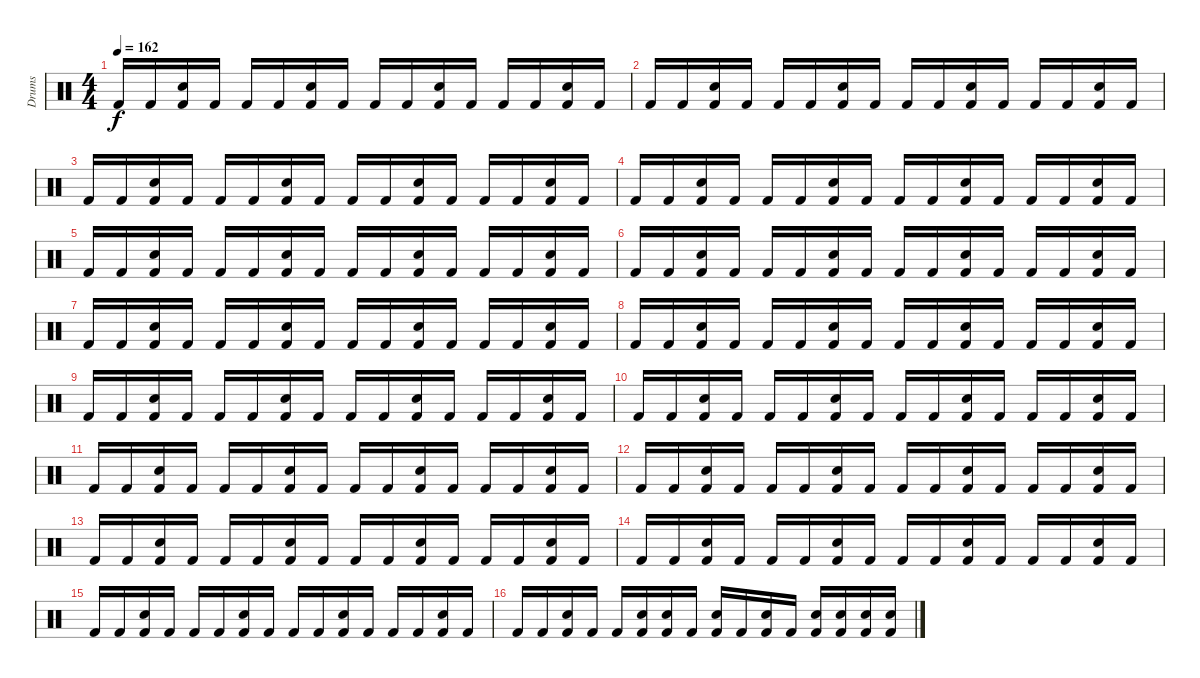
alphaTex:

\track ("Drums" "Drums") {instrument percussion}
\staff {score}
\articulation defaults
\ts (4 4)
\tempo 162
\clef neutral
\ks c "Kick (hit) 2".16{dy f} "Kick (hit) 2".16
("Electric Snare (hit)" "Kick (hit) 2").16 "Kick (hit) 2".16 "Kick (hit) 2".16 "Kick (hit) 2".16 ("Electric Snare (hit)" "Kick (hit) 2").16 "Kick (hit) 2".16 "Kick (hit) 2".16 "Kick (hit) 2".16 ("Electric Snare (hit)" "Kick (hit) 2").16 "Kick (hit) 2".16 "Kick (hit) 2".16 "Kick (hit) 2".16 ("Electric Snare (hit)" "Kick (hit) 2").16 "Kick (hit) 2".16 |
"Kick (hit) 2".16 "Kick (hit) 2".16 ("Electric Snare (hit)" "Kick (hit) 2").16 "Kick (hit) 2".16 "Kick (hit) 2".16 "Kick (hit) 2".16 ("Electric Snare (hit)" "Kick (hit) 2").16 "Kick (hit) 2".16 "Kick (hit) 2".16 "Kick (hit) 2".16 ("Electric Snare (hit)" "Kick (hit) 2").16 "Kick (hit) 2".16 "Kick (hit) 2".16 "Kick (hit) 2".16 ("Electric Snare (hit)" "Kick (hit) 2").16 "Kick (hit) 2".16 |
"Kick (hit) 2".16 "Kick (hit) 2".16 ("Electric Snare (hit)" "Kick (hit) 2").16 "Kick (hit) 2".16 "Kick (hit) 2".16 "Kick (hit) 2".16 ("Electric Snare (hit)" "Kick (hit) 2").16 "Kick (hit) 2".16 "Kick (hit) 2".16 "Kick (hit) 2".16 ("Electric Snare (hit)" "Kick (hit) 2").16 "Kick (hit) 2".16 "Kick (hit) 2".16 "Kick (hit) 2".16 ("Electric Snare (hit)" "Kick (hit) 2").16 "Kick (hit) 2".16 |
"Kick (hit) 2".16 "Kick (hit) 2".16 ("Electric Snare (hit)" "Kick (hit) 2").16 "Kick (hit) 2".16 "Kick (hit) 2".16 "Kick (hit) 2".16 ("Electric Snare (hit)" "Kick (hit) 2").16 "Kick (hit) 2".16 "Kick (hit) 2".16 "Kick (hit) 2".16 ("Electric Snare (hit)" "Kick (hit) 2").16 "Kick (hit) 2".16 "Kick (hit) 2".16 "Kick (hit) 2".16 ("Electric Snare (hit)" "Kick (hit) 2").16 "Kick (hit) 2".16 |
"Kick (hit) 2".16 "Kick (hit) 2".16 ("Electric Snare (hit)" "Kick (hit) 2").16 "Kick (hit) 2".16 "Kick (hit) 2".16 "Kick (hit) 2".16 ("Electric Snare (hit)" "Kick (hit) 2").16 "Kick (hit) 2".16 "Kick (hit) 2".16 "Kick (hit) 2".16 ("Electric Snare (hit)" "Kick (hit) 2").16 "Kick (hit) 2".16 "Kick (hit) 2".16 "Kick (hit) 2".16 ("Electric Snare (hit)" "Kick (hit) 2").16 "Kick (hit) 2".16 |
"Kick (hit) 2".16 "Kick (hit) 2".16 ("Electric Snare (hit)" "Kick (hit) 2").16 "Kick (hit) 2".16 "Kick (hit) 2".16 "Kick (hit) 2".16 ("Electric Snare (hit)" "Kick (hit) 2").16 "Kick (hit) 2".16 "Kick (hit) 2".16 "Kick (hit) 2".16 ("Electric Snare (hit)" "Kick (hit) 2").16 "Kick (hit) 2".16 "Kick (hit) 2".16 "Kick (hit) 2".16 ("Electric Snare (hit)" "Kick (hit) 2").16 "Kick (hit) 2".16 |
"Kick (hit) 2".16 "Kick (hit) 2".16 ("Electric Snare (hit)" "Kick (hit) 2").16 "Kick (hit) 2".16 "Kick (hit) 2".16 "Kick (hit) 2".16 ("Electric Snare (hit)" "Kick (hit) 2").16 "Kick (hit) 2".16 "Kick (hit) 2".16 "Kick (hit) 2".16 ("Electric Snare (hit)" "Kick (hit) 2").16 "Kick (hit) 2".16 "Kick (hit) 2".16 "Kick (hit) 2".16 ("Electric Snare (hit)" "Kick (hit) 2").16 "Kick (hit) 2".16 |
"Kick (hit) 2".16 "Kick (hit) 2".16 ("Electric Snare (hit)" "Kick (hit) 2").16 "Kick (hit) 2".16 "Kick (hit) 2".16 "Kick (hit) 2".16 ("Electric Snare (hit)" "Kick (hit) 2").16 "Kick (hit) 2".16 "Kick (hit) 2".16 "Kick (hit) 2".16 ("Electric Snare (hit)" "Kick (hit) 2").16 "Kick (hit) 2".16 "Kick (hit) 2".16 "Kick (hit) 2".16 ("Electric Snare (hit)" "Kick (hit) 2").16 "Kick (hit) 2".16 |
"Kick (hit) 2".16 "Kick (hit) 2".16 ("Electric Snare (hit)" "Kick (hit) 2").16 "Kick (hit) 2".16 "Kick (hit) 2".16 "Kick (hit) 2".16 ("Electric Snare (hit)" "Kick (hit) 2").16 "Kick (hit) 2".16 "Kick (hit) 2".16 "Kick (hit) 2".16 ("Electric Snare (hit)" "Kick (hit) 2").16 "Kick (hit) 2".16 "Kick (hit) 2".16 "Kick (hit) 2".16 ("Electric Snare (hit)" "Kick (hit) 2").16 "Kick (hit) 2".16 |
"Kick (hit) 2".16 "Kick (hit) 2".16 ("Electric Snare (hit)" "Kick (hit) 2").16 "Kick (hit) 2".16 "Kick (hit) 2".16 "Kick (hit) 2".16 ("Electric Snare (hit)" "Kick (hit) 2").16 "Kick (hit) 2".16 "Kick (hit) 2".16 "Kick (hit) 2".16 ("Electric Snare (hit)" "Kick (hit) 2").16 "Kick (hit) 2".16 "Kick (hit) 2".16 "Kick (hit) 2".16 ("Electric Snare (hit)" "Kick (hit) 2").16 "Kick (hit) 2".16 |
"Kick (hit) 2".16 "Kick (hit) 2".16 ("Electric Snare (hit)" "Kick (hit) 2").16 "Kick (hit) 2".16 "Kick (hit) 2".16 "Kick (hit) 2".16 ("Electric Snare (hit)" "Kick (hit) 2").16 "Kick (hit) 2".16 "Kick (hit) 2".16 "Kick (hit) 2".16 ("Electric Snare (hit)" "Kick (hit) 2").16 "Kick (hit) 2".16 "Kick (hit) 2".16 "Kick (hit) 2".16 ("Electric Snare (hit)" "Kick (hit) 2").16 "Kick (hit) 2".16 |
"Kick (hit) 2".16 "Kick (hit) 2".16 ("Electric Snare (hit)" "Kick (hit) 2").16 "Kick (hit) 2".16 "Kick (hit) 2".16 "Kick (hit) 2".16 ("Electric Snare (hit)" "Kick (hit) 2").16 "Kick (hit) 2".16 "Kick (hit) 2".16 "Kick (hit) 2".16 ("Electric Snare (hit)" "Kick (hit) 2").16 "Kick (hit) 2".16 "Kick (hit) 2".16 "Kick (hit) 2".16 ("Electric Snare (hit)" "Kick (hit) 2").16 "Kick (hit) 2".16 |
"Kick (hit) 2".16 "Kick (hit) 2".16 ("Electric Snare (hit)" "Kick (hit) 2").16 "Kick (hit) 2".16 "Kick (hit) 2".16 "Kick (hit) 2".16 ("Electric Snare (hit)" "Kick (hit) 2").16 "Kick (hit) 2".16 "Kick (hit) 2".16 "Kick (hit) 2".16 ("Electric Snare (hit)" "Kick (hit) 2").16 "Kick (hit) 2".16 "Kick (hit) 2".16 "Kick (hit) 2".16 ("Electric Snare (hit)" "Kick (hit) 2").16 "Kick (hit) 2".16 |
"Kick (hit) 2".16 "Kick (hit) 2".16 ("Electric Snare (hit)" "Kick (hit) 2").16 "Kick (hit) 2".16 "Kick (hit) 2".16 "Kick (hit) 2".16 ("Electric Snare (hit)" "Kick (hit) 2").16 "Kick (hit) 2".16 "Kick (hit) 2".16 "Kick (hit) 2".16 ("Electric Snare (hit)" "Kick (hit) 2").16 "Kick (hit) 2".16 "Kick (hit) 2".16 "Kick (hit) 2".16 ("Electric Snare (hit)" "Kick (hit) 2").16 "Kick (hit) 2".16 |
"Kick (hit) 2".16 "Kick (hit) 2".16 ("Electric Snare (hit)" "Kick (hit) 2").16 "Kick (hit) 2".16 "Kick (hit) 2".16 "Kick (hit) 2".16 ("Electric Snare (hit)" "Kick (hit) 2").16 "Kick (hit) 2".16 "Kick (hit) 2".16 "Kick (hit) 2".16 ("Electric Snare (hit)" "Kick (hit) 2").16 "Kick (hit) 2".16 "Kick (hit) 2".16 "Kick (hit) 2".16 ("Electric Snare (hit)" "Kick (hit) 2").16 "Kick (hit) 2".16 |
"Kick (hit) 2".16 "Kick (hit) 2".16 ("Electric Snare (hit)" "Kick (hit) 2").16 "Kick (hit) 2".16 "Kick (hit) 2".16 ("Electric Snare (hit)" "Kick (hit) 2").16 ("Electric Snare (hit)" "Kick (hit) 2").16 "Kick (hit) 2".16 ("Electric Snare (hit)" "Kick (hit) 2").16 "Kick (hit) 2".16 ("Electric Snare (hit)" "Kick (hit) 2").16 "Kick (hit) 2".16 ("Electric Snare (hit)" "Kick (hit) 2").16 ("Electric Snare (hit)" "Kick (hit) 2").16 ("Electric Snare (hit)" "Kick (hit) 2").16 ("Electric Snare (hit)" "Kick (hit) 2").16
